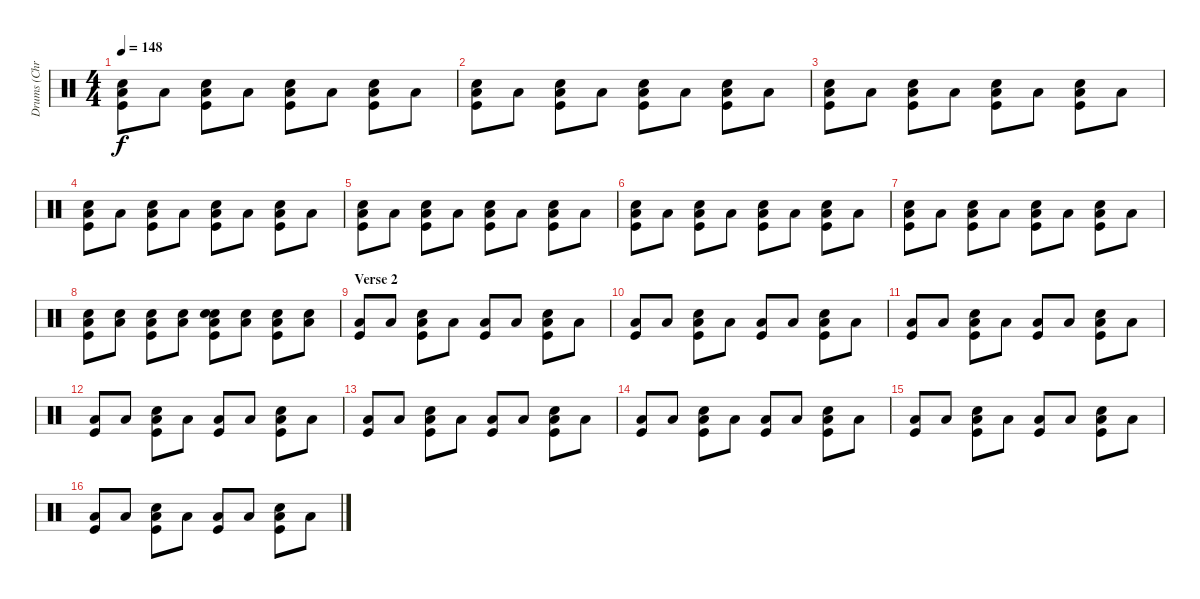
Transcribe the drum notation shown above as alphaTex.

\track ("Drums (Chris Dangerous)" "Drums (Chr") {instrument percussion}
\staff {score}
\articulation defaults
\ts (4 4)
\tempo 148
\clef neutral
\ks c
("Low Tom (hit)" "Kick (hit)" "Hand Clap (hit)").8{dy f} "Low Tom (hit)".8 ("Low Tom (hit)" "Kick (hit)" "Snare (hit) 2").8 "Low Tom (hit)".8 ("Low Tom (hit)" "Kick (hit)" "Hand Clap (hit)").8 "Low Tom (hit)".8 ("Low Tom (hit)" "Kick (hit)" "Snare (hit) 2").8 "Low Tom (hit)".8 |
("Low Tom (hit)" "Kick (hit)" "Hand Clap (hit)").8 "Low Tom (hit)".8 ("Low Tom (hit)" "Kick (hit)" "Snare (hit) 2").8 "Low Tom (hit)".8 ("Low Tom (hit)" "Kick (hit)" "Hand Clap (hit)").8 "Low Tom (hit)".8 ("Low Tom (hit)" "Kick (hit)" "Snare (hit) 2").8 "Low Tom (hit)".8 |
("Low Tom (hit)" "Kick (hit)" "Hand Clap (hit)").8 "Low Tom (hit)".8 ("Low Tom (hit)" "Kick (hit)" "Snare (hit) 2").8 "Low Tom (hit)".8 ("Low Tom (hit)" "Kick (hit)" "Hand Clap (hit)").8 "Low Tom (hit)".8 ("Low Tom (hit)" "Kick (hit)" "Snare (hit) 2").8 "Low Tom (hit)".8 |
("Low Tom (hit)" "Kick (hit)" "Hand Clap (hit)").8 "Low Tom (hit)".8 ("Low Tom (hit)" "Kick (hit)" "Snare (hit) 2").8 "Low Tom (hit)".8 ("Low Tom (hit)" "Kick (hit)" "Hand Clap (hit)").8 "Low Tom (hit)".8 ("Low Tom (hit)" "Kick (hit)" "Snare (hit) 2").8 "Low Tom (hit)".8 |
("Low Tom (hit)" "Kick (hit)" "Hand Clap (hit)").8 "Low Tom (hit)".8 ("Low Tom (hit)" "Kick (hit)" "Snare (hit) 2").8 "Low Tom (hit)".8 ("Low Tom (hit)" "Kick (hit)" "Hand Clap (hit)").8 "Low Tom (hit)".8 ("Low Tom (hit)" "Kick (hit)" "Snare (hit) 2").8 "Low Tom (hit)".8 |
("Low Tom (hit)" "Kick (hit)" "Hand Clap (hit)").8 "Low Tom (hit)".8 ("Low Tom (hit)" "Kick (hit)" "Snare (hit) 2").8 "Low Tom (hit)".8 ("Low Tom (hit)" "Kick (hit)" "Hand Clap (hit)").8 "Low Tom (hit)".8 ("Low Tom (hit)" "Kick (hit)" "Snare (hit) 2").8 "Low Tom (hit)".8 |
("Low Tom (hit)" "Kick (hit)" "Hand Clap (hit)").8 "Low Tom (hit)".8 ("Low Tom (hit)" "Kick (hit)" "Snare (hit) 2").8 "Low Tom (hit)".8 ("Low Tom (hit)" "Kick (hit)" "Hand Clap (hit)").8 "Low Tom (hit)".8 ("Low Tom (hit)" "Kick (hit)" "Snare (hit) 2").8 "Low Tom (hit)".8 |
("Low Tom (hit)" "Kick (hit)" "Hand Clap (hit)").8 ("Low Tom (hit)" "Snare (hit) 2").8 ("Low Tom (hit)" "Kick (hit)" "Snare (hit) 2").8 ("Low Tom (hit)" "Snare (hit) 2").8 ("Low Tom (hit)" "Kick (hit)" "Snare (hit) 2" "Hand Clap (hit)").8 ("Low Tom (hit)" "Snare (hit) 2").8 ("Low Tom (hit)" "Kick (hit)" "Snare (hit) 2").8 ("Low Tom (hit)" "Snare (hit) 2").8 |
\section ("" "Verse 2")
("Low Tom (hit)" "Kick (hit)").8 "Low Tom (hit)".8 ("Low Tom (hit)" "Kick (hit)" "Snare (hit) 2").8 "Low Tom (hit)".8 ("Low Tom (hit)" "Kick (hit)").8 "Low Tom (hit)".8 ("Low Tom (hit)" "Kick (hit)" "Snare (hit) 2").8 "Low Tom (hit)".8 |
("Low Tom (hit)" "Kick (hit)").8 "Low Tom (hit)".8 ("Low Tom (hit)" "Kick (hit)" "Snare (hit) 2").8 "Low Tom (hit)".8 ("Low Tom (hit)" "Kick (hit)").8 "Low Tom (hit)".8 ("Low Tom (hit)" "Kick (hit)" "Snare (hit) 2").8 "Low Tom (hit)".8 |
("Low Tom (hit)" "Kick (hit)").8 "Low Tom (hit)".8 ("Low Tom (hit)" "Kick (hit)" "Snare (hit) 2").8 "Low Tom (hit)".8 ("Low Tom (hit)" "Kick (hit)").8 "Low Tom (hit)".8 ("Low Tom (hit)" "Kick (hit)" "Snare (hit) 2").8 "Low Tom (hit)".8 |
("Low Tom (hit)" "Kick (hit)").8 "Low Tom (hit)".8 ("Low Tom (hit)" "Kick (hit)" "Snare (hit) 2").8 "Low Tom (hit)".8 ("Low Tom (hit)" "Kick (hit)").8 "Low Tom (hit)".8 ("Low Tom (hit)" "Kick (hit)" "Snare (hit) 2").8 "Low Tom (hit)".8 |
("Low Tom (hit)" "Kick (hit)").8 "Low Tom (hit)".8 ("Low Tom (hit)" "Kick (hit)" "Snare (hit) 2").8 "Low Tom (hit)".8 ("Low Tom (hit)" "Kick (hit)").8 "Low Tom (hit)".8 ("Low Tom (hit)" "Kick (hit)" "Snare (hit) 2").8 "Low Tom (hit)".8 |
("Low Tom (hit)" "Kick (hit)").8 "Low Tom (hit)".8 ("Low Tom (hit)" "Kick (hit)" "Snare (hit) 2").8 "Low Tom (hit)".8 ("Low Tom (hit)" "Kick (hit)").8 "Low Tom (hit)".8 ("Low Tom (hit)" "Kick (hit)" "Snare (hit) 2").8 "Low Tom (hit)".8 |
("Low Tom (hit)" "Kick (hit)").8 "Low Tom (hit)".8 ("Low Tom (hit)" "Kick (hit)" "Snare (hit) 2").8 "Low Tom (hit)".8 ("Low Tom (hit)" "Kick (hit)").8 "Low Tom (hit)".8 ("Low Tom (hit)" "Kick (hit)" "Snare (hit) 2").8 "Low Tom (hit)".8 |
("Low Tom (hit)" "Kick (hit)").8 "Low Tom (hit)".8 ("Low Tom (hit)" "Kick (hit)" "Snare (hit) 2").8 "Low Tom (hit)".8 ("Low Tom (hit)" "Kick (hit)").8 "Low Tom (hit)".8 ("Low Tom (hit)" "Kick (hit)" "Snare (hit) 2").8 "Low Tom (hit)".8
